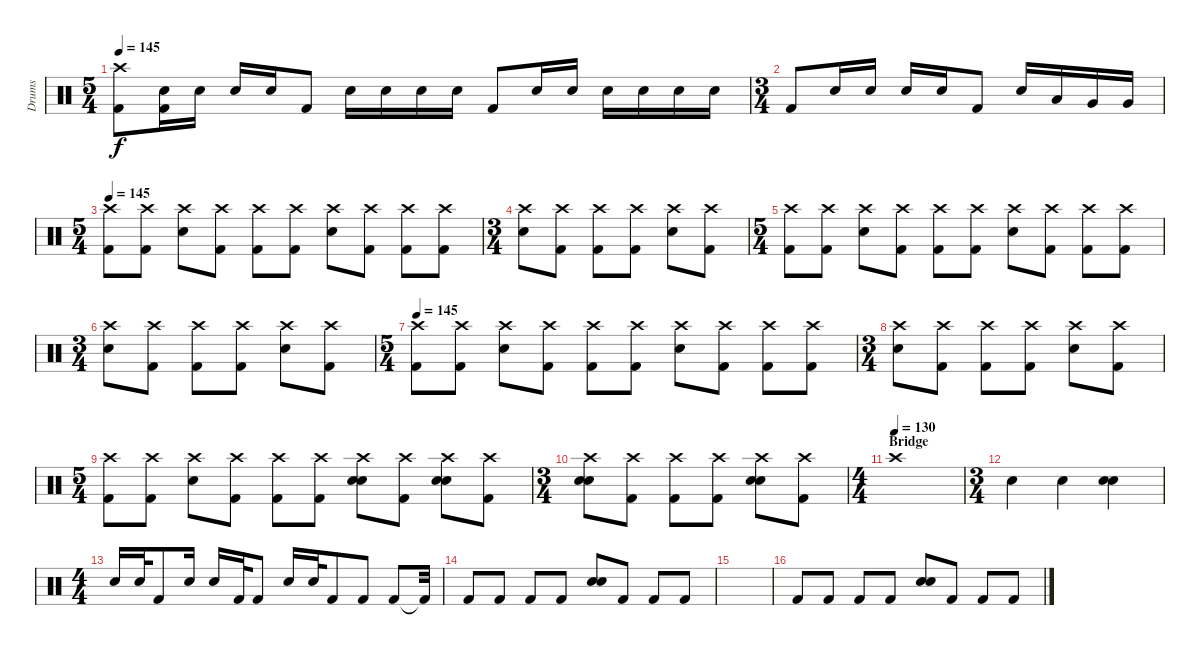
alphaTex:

\track ("Drums" "Drums") {instrument percussion}
\staff {score}
\articulation defaults
\ts (5 4)
\tempo 145
\clef neutral
\ks c
("Crash high (hit)" "Kick (hit) 2").8{dy f} ("Electric Snare (hit)" "Kick (hit) 2").16 "Electric Snare (hit)".16 "Electric Snare (hit)".16 "Electric Snare (hit)".16 "Kick (hit) 2".8 "Electric Snare (hit)".16 "Electric Snare (hit)".16 "Electric Snare (hit)".16 "Electric Snare (hit)".16 "Kick (hit) 2".8 "Electric Snare (hit)".16 "Electric Snare (hit)".16 "Electric Snare (hit)".16 "Electric Snare (hit)".16 "Electric Snare (hit)".16 "Electric Snare (hit)".16 |
\ts (3 4)
"Kick (hit) 2".8 "Electric Snare (hit)".16 "Electric Snare (hit)".16 "Electric Snare (hit)".16 "Electric Snare (hit)".16 "Kick (hit) 2".8 "Electric Snare (hit)".16 "Low Tom (hit)".16 "Very Low Tom (hit)".16 "Very Low Tom (hit)".16 |
\ts (5 4)
\tempo 145
("Crash high (hit)" "Kick (hit) 2").8 ("Crash high (hit)" "Kick (hit) 2").8 ("Crash high (hit)" "Electric Snare (hit)").8 ("Crash high (hit)" "Kick (hit) 2").8 ("Crash high (hit)" "Kick (hit) 2").8 ("Crash high (hit)" "Kick (hit) 2").8 ("Crash high (hit)" "Electric Snare (hit)").8 ("Crash high (hit)" "Kick (hit) 2").8 ("Crash high (hit)" "Kick (hit) 2").8 ("Crash high (hit)" "Kick (hit) 2").8 |
\ts (3 4)
("Crash high (hit)" "Electric Snare (hit)").8 ("Crash high (hit)" "Kick (hit) 2").8 ("Crash high (hit)" "Kick (hit) 2").8 ("Crash high (hit)" "Kick (hit) 2").8 ("Crash high (hit)" "Electric Snare (hit)").8 ("Crash high (hit)" "Kick (hit) 2").8 |
\ts (5 4)
("Crash high (hit)" "Kick (hit) 2").8 ("Crash high (hit)" "Kick (hit) 2").8 ("Crash high (hit)" "Electric Snare (hit)").8 ("Crash high (hit)" "Kick (hit) 2").8 ("Crash high (hit)" "Kick (hit) 2").8 ("Crash high (hit)" "Kick (hit) 2").8 ("Crash high (hit)" "Electric Snare (hit)").8 ("Crash high (hit)" "Kick (hit) 2").8 ("Crash high (hit)" "Kick (hit) 2").8 ("Crash high (hit)" "Kick (hit) 2").8 |
\ts (3 4)
("Crash high (hit)" "Electric Snare (hit)").8 ("Crash high (hit)" "Kick (hit) 2").8 ("Crash high (hit)" "Kick (hit) 2").8 ("Crash high (hit)" "Kick (hit) 2").8 ("Crash high (hit)" "Electric Snare (hit)").8 ("Crash high (hit)" "Kick (hit) 2").8 |
\ts (5 4)
\tempo 145
("Crash high (hit)" "Kick (hit) 2").8 ("Crash high (hit)" "Kick (hit) 2").8 ("Crash high (hit)" "Electric Snare (hit)").8 ("Crash high (hit)" "Kick (hit) 2").8 ("Crash high (hit)" "Kick (hit) 2").8 ("Crash high (hit)" "Kick (hit) 2").8 ("Crash high (hit)" "Electric Snare (hit)").8 ("Crash high (hit)" "Kick (hit) 2").8 ("Crash high (hit)" "Kick (hit) 2").8 ("Crash high (hit)" "Kick (hit) 2").8 |
\ts (3 4)
("Crash high (hit)" "Electric Snare (hit)").8 ("Crash high (hit)" "Kick (hit) 2").8 ("Crash high (hit)" "Kick (hit) 2").8 ("Crash high (hit)" "Kick (hit) 2").8 ("Crash high (hit)" "Electric Snare (hit)").8 ("Crash high (hit)" "Kick (hit) 2").8 |
\ts (5 4)
("Crash high (hit)" "Kick (hit) 2").8 ("Crash high (hit)" "Kick (hit) 2").8 ("Crash high (hit)" "Electric Snare (hit)").8 ("Crash high (hit)" "Kick (hit) 2").8 ("Crash high (hit)" "Kick (hit) 2").8 ("Crash high (hit)" "Kick (hit) 2").8 ("Crash high (hit)" "Electric Snare (hit)" "Snare (hit) 2").8 ("Crash high (hit)" "Kick (hit) 2").8 ("Crash high (hit)" "Electric Snare (hit)" "Snare (hit) 2").8 ("Crash high (hit)" "Kick (hit) 2").8 |
\ts (3 4)
("Crash high (hit)" "Electric Snare (hit)" "Snare (hit) 2").8 ("Crash high (hit)" "Kick (hit) 2").8 ("Crash high (hit)" "Kick (hit) 2").8 ("Crash high (hit)" "Kick (hit) 2").8 ("Crash high (hit)" "Electric Snare (hit)" "Snare (hit) 2").8 ("Crash high (hit)" "Kick (hit) 2").8 |
\ts (4 4)
\section ("" "Bridge")
\tempo (130)
"Crash high (hit)".1 |
\ts (3 4)
"Snare (hit)"{x}.4 "Snare (hit)"{x}.4 ("Snare (hit)"{x} "Electric Snare (hit)").4 |
\ts (4 4)
"Electric Snare (hit)".16 "Electric Snare (hit)".32 "Kick (hit) 2".8 "Electric Snare (hit)".16 "Electric Snare (hit)".16 "Kick (hit) 2".32 "Kick (hit) 2"{x}.8 "Electric Snare (hit)".16 "Electric Snare (hit)".32 "Kick (hit) 2".8 "Kick (hit) 2".8 "Kick (hit) 2".8 "Kick (hit) 2"{t}.32 |
"Kick (hit) 2".8 "Kick (hit) 2".8 "Kick (hit) 2".8 "Kick (hit) 2".8 ("Snare (hit) 2" "Electric Snare (hit)").8 "Kick (hit) 2"{x}.8 "Kick (hit) 2"{x}.8 "Kick (hit) 2"{x}.8 |
|
"Kick (hit) 2".8 "Kick (hit) 2".8 "Kick (hit) 2".8 "Kick (hit) 2".8 ("Snare (hit) 2" "Electric Snare (hit)").8 "Kick (hit) 2"{x}.8 "Kick (hit) 2"{x}.8 "Kick (hit) 2"{x}.8
